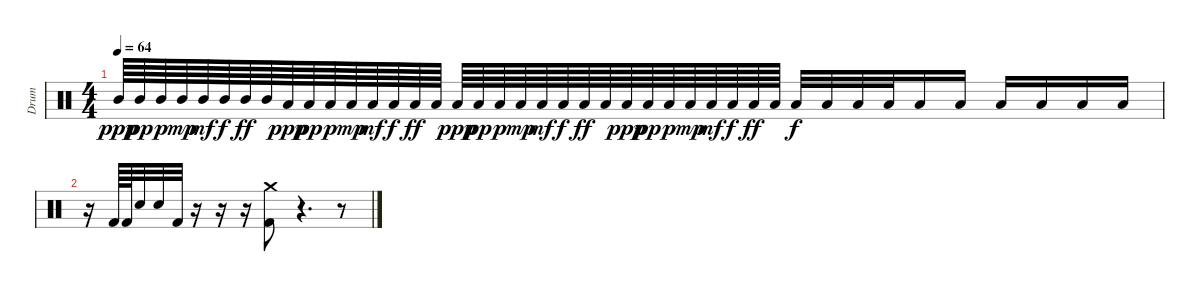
\track ("Drum" "Drum") {instrument percussion}
\staff {score}
\articulation defaults
\ts (4 4)
\tempo 64
\clef neutral
\ks c "Mid Tom (hit)".64{dy ppp} "Mid Tom (hit)".64{dy pp} "Mid Tom (hit)".64{dy p} "Mid Tom (hit)".64{dy mp} "Mid Tom (hit)".64{dy mf} "Mid Tom (hit)".64{dy f} "Mid Tom (hit)".64{dy ff} "Mid Tom (hit)".64 "Low Tom (hit)".64{dy ppp} "Low Tom (hit)".64{dy pp} "Low Tom (hit)".64{dy p} "Low Tom (hit)".64{dy mp} "Low Tom (hit)".64{dy mf} "Low Tom (hit)".64{dy f} "Low Tom (hit)".64{dy ff} "Low Tom (hit)".64 "Low Floor Tom (hit)".64{dy ppp} "Low Floor Tom (hit)".64{dy pp} "Low Floor Tom (hit)".64{dy p} "Low Floor Tom (hit)".64{dy mp} "Low Floor Tom (hit)".64{dy mf} "Low Floor Tom (hit)".64{dy f} "Low Floor Tom (hit)".64{dy ff} "Low Floor Tom (hit)".64 "Low Floor Tom (hit)".64{dy ppp} "Low Floor Tom (hit)".64{dy pp} "Low Floor Tom (hit)".64{dy p} "Low Floor Tom (hit)".64{dy mp} "Low Floor Tom (hit)".64{dy mf} "Low Floor Tom (hit)".64{dy f} "Low Floor Tom (hit)".64{dy ff} "Low Floor Tom (hit)".64 "Low Floor Tom (hit)".32{dy f} "Low Floor Tom (hit)".32 "Low Floor Tom (hit)".32 "Low Floor Tom (hit)".32 "Low Floor Tom (hit)".16 "Low Floor Tom (hit)".16 "Low Floor Tom (hit)".16 "Low Floor Tom (hit)".16 "Low Floor Tom (hit)".16 "Low Floor Tom (hit)".16
|
r.16 "Kick (hit) 2".64 "Kick (hit) 2".64 "Electric Snare (hit)".32 "Electric Snare (hit)".32 "Kick (hit) 2".32 r.16 r.16 r.16 ("Kick (hit) 2" "Crash medium (hit)").8 r.4{d} r.8
